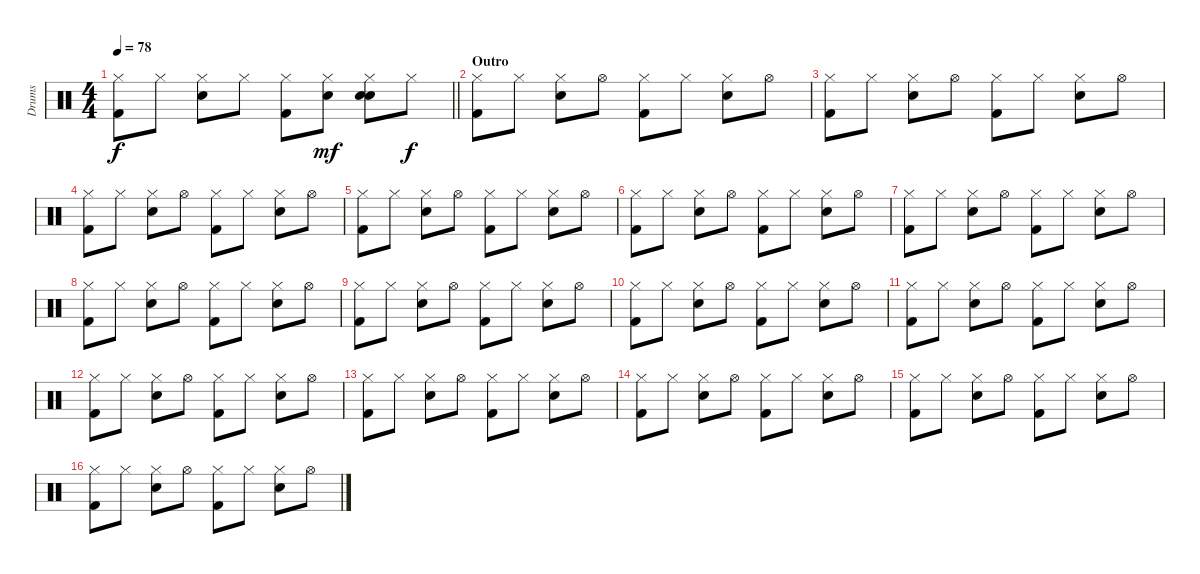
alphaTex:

\track ("Drums" "Drums") {instrument percussion}
\staff {score}
\articulation defaults
\ts (4 4)
\tempo 78
\clef neutral
\barLineRight lightlight
\ks c
("Hi-Hat (closed)" "Kick (hit) 2").8{dy f} "Hi-Hat (closed)".8 ("Hi-Hat (closed)" "Snare (hit) 2").8 "Hi-Hat (closed)".8 ("Hi-Hat (closed)" "Kick (hit) 2").8 ("Hi-Hat (closed)" "Hand Clap (hit)").8{dy mf} ("Hi-Hat (closed)" "Snare (hit) 2" "Hand Clap (hit)").8 "Hi-Hat (closed)".8{dy f} |
\section ("" "Outro")
("Hi-Hat (closed)" "Kick (hit) 2").8 "Hi-Hat (closed)".8 ("Hi-Hat (closed)" "Snare (hit) 2").8 "Hi-Hat (open)".8 ("Hi-Hat (closed)" "Kick (hit) 2").8 "Hi-Hat (closed)".8 ("Hi-Hat (closed)" "Snare (hit) 2").8 "Hi-Hat (open)".8 |
("Hi-Hat (closed)" "Kick (hit) 2").8 "Hi-Hat (closed)".8 ("Hi-Hat (closed)" "Snare (hit) 2").8 "Hi-Hat (open)".8 ("Hi-Hat (closed)" "Kick (hit) 2").8 "Hi-Hat (closed)".8 ("Hi-Hat (closed)" "Snare (hit) 2").8 "Hi-Hat (open)".8 |
("Hi-Hat (closed)" "Kick (hit) 2").8 "Hi-Hat (closed)".8 ("Hi-Hat (closed)" "Snare (hit) 2").8 "Hi-Hat (open)".8 ("Hi-Hat (closed)" "Kick (hit) 2").8 "Hi-Hat (closed)".8 ("Hi-Hat (closed)" "Snare (hit) 2").8 "Hi-Hat (open)".8 |
("Hi-Hat (closed)" "Kick (hit) 2").8 "Hi-Hat (closed)".8 ("Hi-Hat (closed)" "Snare (hit) 2").8 "Hi-Hat (open)".8 ("Hi-Hat (closed)" "Kick (hit) 2").8 "Hi-Hat (closed)".8 ("Hi-Hat (closed)" "Snare (hit) 2").8 "Hi-Hat (open)".8 |
("Hi-Hat (closed)" "Kick (hit) 2").8 "Hi-Hat (closed)".8 ("Hi-Hat (closed)" "Snare (hit) 2").8 "Hi-Hat (open)".8 ("Hi-Hat (closed)" "Kick (hit) 2").8 "Hi-Hat (closed)".8 ("Hi-Hat (closed)" "Snare (hit) 2").8 "Hi-Hat (open)".8 |
("Hi-Hat (closed)" "Kick (hit) 2").8 "Hi-Hat (closed)".8 ("Hi-Hat (closed)" "Snare (hit) 2").8 "Hi-Hat (open)".8 ("Hi-Hat (closed)" "Kick (hit) 2").8 "Hi-Hat (closed)".8 ("Hi-Hat (closed)" "Snare (hit) 2").8 "Hi-Hat (open)".8 |
("Hi-Hat (closed)" "Kick (hit) 2").8 "Hi-Hat (closed)".8 ("Hi-Hat (closed)" "Snare (hit) 2").8 "Hi-Hat (open)".8 ("Hi-Hat (closed)" "Kick (hit) 2").8 "Hi-Hat (closed)".8 ("Hi-Hat (closed)" "Snare (hit) 2").8 "Hi-Hat (open)".8 |
("Hi-Hat (closed)" "Kick (hit) 2").8 "Hi-Hat (closed)".8 ("Hi-Hat (closed)" "Snare (hit) 2").8 "Hi-Hat (open)".8 ("Hi-Hat (closed)" "Kick (hit) 2").8 "Hi-Hat (closed)".8 ("Hi-Hat (closed)" "Snare (hit) 2").8 "Hi-Hat (open)".8 |
("Hi-Hat (closed)" "Kick (hit) 2").8 "Hi-Hat (closed)".8 ("Hi-Hat (closed)" "Snare (hit) 2").8 "Hi-Hat (open)".8 ("Hi-Hat (closed)" "Kick (hit) 2").8 "Hi-Hat (closed)".8 ("Hi-Hat (closed)" "Snare (hit) 2").8 "Hi-Hat (open)".8 |
("Hi-Hat (closed)" "Kick (hit) 2").8 "Hi-Hat (closed)".8 ("Hi-Hat (closed)" "Snare (hit) 2").8 "Hi-Hat (open)".8 ("Hi-Hat (closed)" "Kick (hit) 2").8 "Hi-Hat (closed)".8 ("Hi-Hat (closed)" "Snare (hit) 2").8 "Hi-Hat (open)".8 |
("Hi-Hat (closed)" "Kick (hit) 2").8 "Hi-Hat (closed)".8 ("Hi-Hat (closed)" "Snare (hit) 2").8 "Hi-Hat (open)".8 ("Hi-Hat (closed)" "Kick (hit) 2").8 "Hi-Hat (closed)".8 ("Hi-Hat (closed)" "Snare (hit) 2").8 "Hi-Hat (open)".8 |
("Hi-Hat (closed)" "Kick (hit) 2").8 "Hi-Hat (closed)".8 ("Hi-Hat (closed)" "Snare (hit) 2").8 "Hi-Hat (open)".8 ("Hi-Hat (closed)" "Kick (hit) 2").8 "Hi-Hat (closed)".8 ("Hi-Hat (closed)" "Snare (hit) 2").8 "Hi-Hat (open)".8 |
("Hi-Hat (closed)" "Kick (hit) 2").8 "Hi-Hat (closed)".8 ("Hi-Hat (closed)" "Snare (hit) 2").8 "Hi-Hat (open)".8 ("Hi-Hat (closed)" "Kick (hit) 2").8 "Hi-Hat (closed)".8 ("Hi-Hat (closed)" "Snare (hit) 2").8 "Hi-Hat (open)".8 |
("Hi-Hat (closed)" "Kick (hit) 2").8 "Hi-Hat (closed)".8 ("Hi-Hat (closed)" "Snare (hit) 2").8 "Hi-Hat (open)".8 ("Hi-Hat (closed)" "Kick (hit) 2").8 "Hi-Hat (closed)".8 ("Hi-Hat (closed)" "Snare (hit) 2").8 "Hi-Hat (open)".8 |
("Hi-Hat (closed)" "Kick (hit) 2").8 "Hi-Hat (closed)".8 ("Hi-Hat (closed)" "Snare (hit) 2").8 "Hi-Hat (open)".8 ("Hi-Hat (closed)" "Kick (hit) 2").8 "Hi-Hat (closed)".8 ("Hi-Hat (closed)" "Snare (hit) 2").8 "Hi-Hat (open)".8
